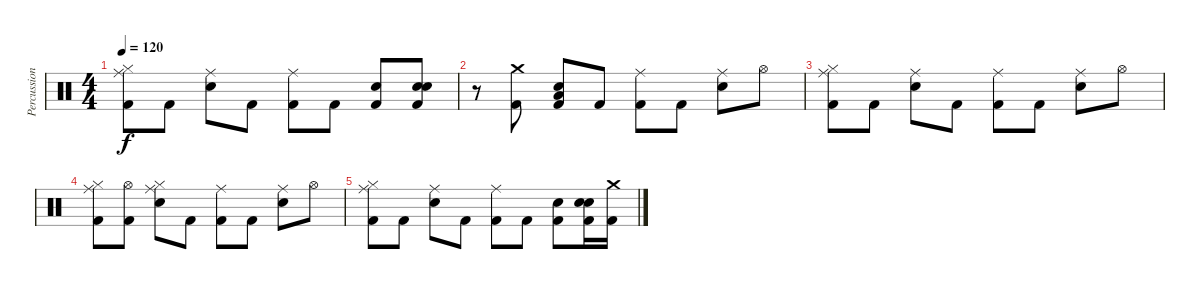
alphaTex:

\track ("Percussioni" "Percussion") {instrument percussion}
\staff {score}
\articulation defaults
\ts (4 4)
\tempo 120
\clef neutral
\ks c
("Ride (middle)" "Hi-Hat (closed)" "Kick (hit) 2").8{dy f} "Kick (hit) 2".8 ("Ride (middle)" "Electric Snare (hit)").8 "Kick (hit) 2".8 ("Ride (middle)" "Kick (hit) 2").8 "Kick (hit) 2".8 ("Kick (hit) 2" "Electric Snare (hit)").8 ("Snare (hit) 2" "Kick (hit) 2" "Electric Snare (hit)").8 |
r.8 ("Crash medium (hit)" "Kick (hit) 2").8 ("Low Floor Tom (hit)" "Electric Snare (hit)" "Kick (hit) 2").8 "Kick (hit) 2".8 ("Ride (middle)" "Kick (hit) 2").8 "Kick (hit) 2".8 ("Ride (middle)" "Electric Snare (hit)").8 "Hi-Hat (open)".8 |
("Ride (middle)" "Hi-Hat (closed)" "Kick (hit) 2").8 "Kick (hit) 2".8 ("Ride (middle)" "Electric Snare (hit)").8 "Kick (hit) 2".8 ("Ride (middle)" "Kick (hit) 2").8 "Kick (hit) 2".8 ("Ride (middle)" "Electric Snare (hit)").8 "Hi-Hat (open)".8 |
("Ride (middle)" "Hi-Hat (closed)" "Kick (hit) 2").8 ("Hi-Hat (open)" "Kick (hit) 2").8 ("Hi-Hat (closed)" "Ride (middle)" "Electric Snare (hit)").8 "Kick (hit) 2".8 ("Ride (middle)" "Kick (hit) 2").8 "Kick (hit) 2".8 ("Ride (middle)" "Electric Snare (hit)").8 "Hi-Hat (open)".8 |
("Ride (middle)" "Hi-Hat (closed)" "Kick (hit) 2").8 "Kick (hit) 2".8 ("Ride (middle)" "Electric Snare (hit)").8 "Kick (hit) 2".8 ("Ride (middle)" "Kick (hit) 2").8 "Kick (hit) 2".8 ("Kick (hit) 2" "Electric Snare (hit)").8 ("Snare (hit) 2" "Kick (hit) 2" "Electric Snare (hit)").16 ("Crash medium (hit)" "Kick (hit) 2").16
